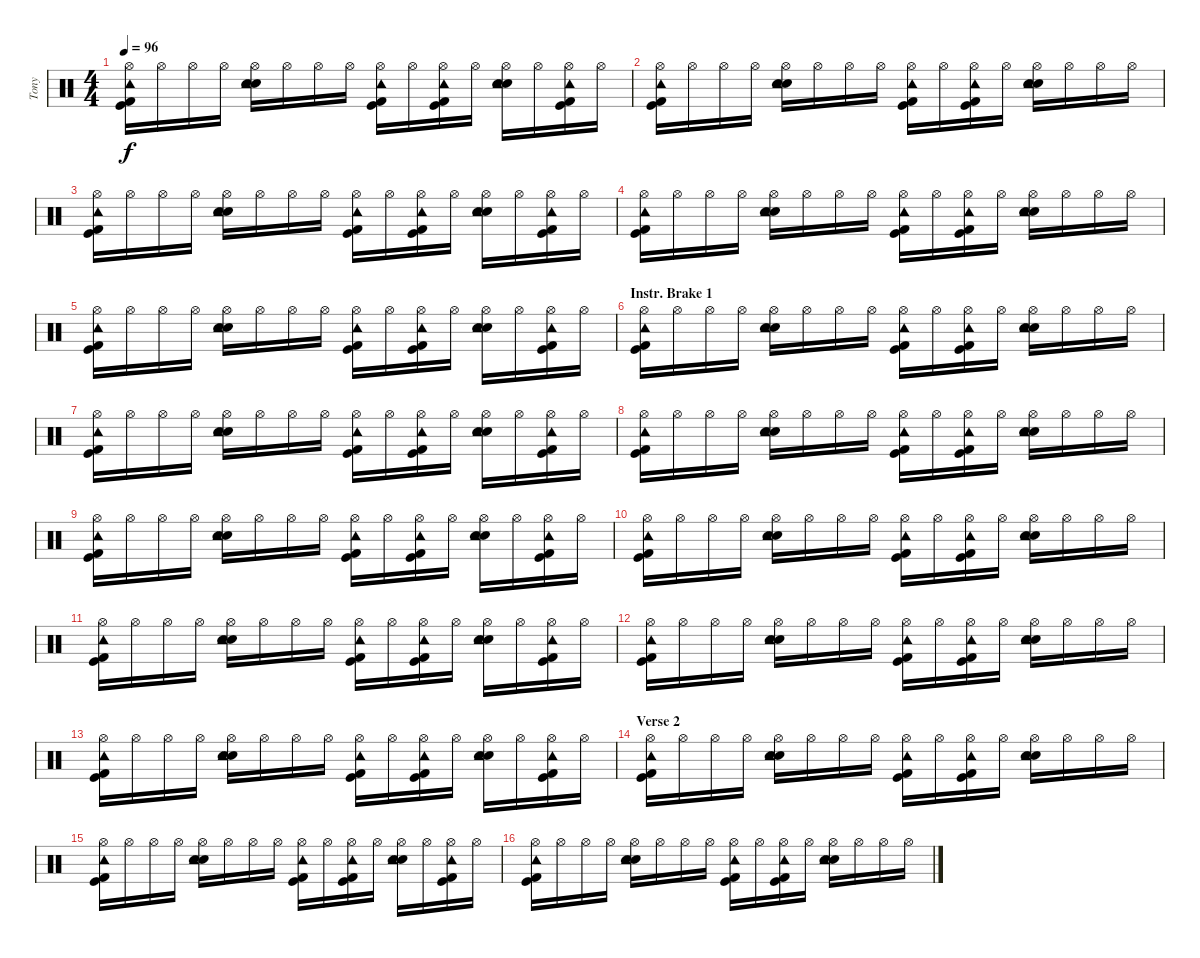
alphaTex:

\track ("Tony" "Tony") {instrument percussion}
\staff {score}
\articulation defaults
\ts (4 4)
\tempo 96
\clef neutral
\ks c
("Kick (hit)" "Kick (hit) 2" "Tambourine (hit)" "Hi-Hat (open)").16{dy f} "Hi-Hat (open)".16 "Hi-Hat (open)".16 "Hi-Hat (open)".16 ("Electric Snare (hit)" "Snare (hit) 2" "Tambourine (hit)" "Hi-Hat (open)").16 "Hi-Hat (open)".16 "Hi-Hat (open)".16 "Hi-Hat (open)".16 ("Kick (hit)" "Kick (hit) 2" "Tambourine (hit)" "Hi-Hat (open)").16 "Hi-Hat (open)".16 ("Kick (hit)" "Kick (hit) 2" "Tambourine (hit)" "Hi-Hat (open)").16 "Hi-Hat (open)".16 ("Electric Snare (hit)" "Snare (hit) 2" "Tambourine (hit)" "Hi-Hat (open)").16 "Hi-Hat (open)".16 ("Kick (hit)" "Kick (hit) 2" "Tambourine (hit)" "Hi-Hat (open)").16 "Hi-Hat (open)".16 |
("Kick (hit)" "Kick (hit) 2" "Tambourine (hit)" "Hi-Hat (open)").16 "Hi-Hat (open)".16 "Hi-Hat (open)".16 "Hi-Hat (open)".16 ("Electric Snare (hit)" "Snare (hit) 2" "Tambourine (hit)" "Hi-Hat (open)").16 "Hi-Hat (open)".16 "Hi-Hat (open)".16 "Hi-Hat (open)".16 ("Kick (hit)" "Kick (hit) 2" "Tambourine (hit)" "Hi-Hat (open)").16 "Hi-Hat (open)".16 ("Kick (hit)" "Kick (hit) 2" "Tambourine (hit)" "Hi-Hat (open)").16 "Hi-Hat (open)".16 ("Electric Snare (hit)" "Snare (hit) 2" "Tambourine (hit)" "Hi-Hat (open)").16 "Hi-Hat (open)".16 "Hi-Hat (open)".16 "Hi-Hat (open)".16 |
("Kick (hit)" "Kick (hit) 2" "Tambourine (hit)" "Hi-Hat (open)").16 "Hi-Hat (open)".16 "Hi-Hat (open)".16 "Hi-Hat (open)".16 ("Electric Snare (hit)" "Snare (hit) 2" "Tambourine (hit)" "Hi-Hat (open)").16 "Hi-Hat (open)".16 "Hi-Hat (open)".16 "Hi-Hat (open)".16 ("Kick (hit)" "Kick (hit) 2" "Tambourine (hit)" "Hi-Hat (open)").16 "Hi-Hat (open)".16 ("Kick (hit)" "Kick (hit) 2" "Tambourine (hit)" "Hi-Hat (open)").16 "Hi-Hat (open)".16 ("Electric Snare (hit)" "Snare (hit) 2" "Tambourine (hit)" "Hi-Hat (open)").16 "Hi-Hat (open)".16 ("Kick (hit)" "Kick (hit) 2" "Tambourine (hit)" "Hi-Hat (open)").16 "Hi-Hat (open)".16 |
("Kick (hit)" "Kick (hit) 2" "Tambourine (hit)" "Hi-Hat (open)").16 "Hi-Hat (open)".16 "Hi-Hat (open)".16 "Hi-Hat (open)".16 ("Electric Snare (hit)" "Snare (hit) 2" "Tambourine (hit)" "Hi-Hat (open)").16 "Hi-Hat (open)".16 "Hi-Hat (open)".16 "Hi-Hat (open)".16 ("Kick (hit)" "Kick (hit) 2" "Tambourine (hit)" "Hi-Hat (open)").16 "Hi-Hat (open)".16 ("Kick (hit)" "Kick (hit) 2" "Tambourine (hit)" "Hi-Hat (open)").16 "Hi-Hat (open)".16 ("Electric Snare (hit)" "Snare (hit) 2" "Tambourine (hit)" "Hi-Hat (open)").16 "Hi-Hat (open)".16 "Hi-Hat (open)".16 "Hi-Hat (open)".16 |
("Kick (hit)" "Kick (hit) 2" "Tambourine (hit)" "Hi-Hat (open)").16 "Hi-Hat (open)".16 "Hi-Hat (open)".16 "Hi-Hat (open)".16 ("Electric Snare (hit)" "Snare (hit) 2" "Tambourine (hit)" "Hi-Hat (open)").16 "Hi-Hat (open)".16 "Hi-Hat (open)".16 "Hi-Hat (open)".16 ("Kick (hit)" "Kick (hit) 2" "Tambourine (hit)" "Hi-Hat (open)").16 "Hi-Hat (open)".16 ("Kick (hit)" "Kick (hit) 2" "Tambourine (hit)" "Hi-Hat (open)").16 "Hi-Hat (open)".16 ("Electric Snare (hit)" "Snare (hit) 2" "Tambourine (hit)" "Hi-Hat (open)").16 "Hi-Hat (open)".16 ("Kick (hit)" "Kick (hit) 2" "Tambourine (hit)" "Hi-Hat (open)").16 "Hi-Hat (open)".16 |
\section ("" "Instr. Brake 1")
("Kick (hit)" "Kick (hit) 2" "Tambourine (hit)" "Hi-Hat (open)").16 "Hi-Hat (open)".16 "Hi-Hat (open)".16 "Hi-Hat (open)".16 ("Electric Snare (hit)" "Snare (hit) 2" "Tambourine (hit)" "Hi-Hat (open)").16 "Hi-Hat (open)".16 "Hi-Hat (open)".16 "Hi-Hat (open)".16 ("Kick (hit)" "Kick (hit) 2" "Tambourine (hit)" "Hi-Hat (open)").16 "Hi-Hat (open)".16 ("Kick (hit)" "Kick (hit) 2" "Tambourine (hit)" "Hi-Hat (open)").16 "Hi-Hat (open)".16 ("Electric Snare (hit)" "Snare (hit) 2" "Tambourine (hit)" "Hi-Hat (open)").16 "Hi-Hat (open)".16 "Hi-Hat (open)".16 "Hi-Hat (open)".16 |
("Kick (hit)" "Kick (hit) 2" "Tambourine (hit)" "Hi-Hat (open)").16 "Hi-Hat (open)".16 "Hi-Hat (open)".16 "Hi-Hat (open)".16 ("Electric Snare (hit)" "Snare (hit) 2" "Tambourine (hit)" "Hi-Hat (open)").16 "Hi-Hat (open)".16 "Hi-Hat (open)".16 "Hi-Hat (open)".16 ("Kick (hit)" "Kick (hit) 2" "Tambourine (hit)" "Hi-Hat (open)").16 "Hi-Hat (open)".16 ("Kick (hit)" "Kick (hit) 2" "Tambourine (hit)" "Hi-Hat (open)").16 "Hi-Hat (open)".16 ("Electric Snare (hit)" "Snare (hit) 2" "Tambourine (hit)" "Hi-Hat (open)").16 "Hi-Hat (open)".16 ("Kick (hit)" "Kick (hit) 2" "Tambourine (hit)" "Hi-Hat (open)").16 "Hi-Hat (open)".16 |
("Kick (hit)" "Kick (hit) 2" "Tambourine (hit)" "Hi-Hat (open)").16 "Hi-Hat (open)".16 "Hi-Hat (open)".16 "Hi-Hat (open)".16 ("Electric Snare (hit)" "Snare (hit) 2" "Tambourine (hit)" "Hi-Hat (open)").16 "Hi-Hat (open)".16 "Hi-Hat (open)".16 "Hi-Hat (open)".16 ("Kick (hit)" "Kick (hit) 2" "Tambourine (hit)" "Hi-Hat (open)").16 "Hi-Hat (open)".16 ("Kick (hit)" "Kick (hit) 2" "Tambourine (hit)" "Hi-Hat (open)").16 "Hi-Hat (open)".16 ("Electric Snare (hit)" "Snare (hit) 2" "Tambourine (hit)" "Hi-Hat (open)").16 "Hi-Hat (open)".16 "Hi-Hat (open)".16 "Hi-Hat (open)".16 |
("Kick (hit)" "Kick (hit) 2" "Tambourine (hit)" "Hi-Hat (open)").16 "Hi-Hat (open)".16 "Hi-Hat (open)".16 "Hi-Hat (open)".16 ("Electric Snare (hit)" "Snare (hit) 2" "Tambourine (hit)" "Hi-Hat (open)").16 "Hi-Hat (open)".16 "Hi-Hat (open)".16 "Hi-Hat (open)".16 ("Kick (hit)" "Kick (hit) 2" "Tambourine (hit)" "Hi-Hat (open)").16 "Hi-Hat (open)".16 ("Kick (hit)" "Kick (hit) 2" "Tambourine (hit)" "Hi-Hat (open)").16 "Hi-Hat (open)".16 ("Electric Snare (hit)" "Snare (hit) 2" "Tambourine (hit)" "Hi-Hat (open)").16 "Hi-Hat (open)".16 ("Kick (hit)" "Kick (hit) 2" "Tambourine (hit)" "Hi-Hat (open)").16 "Hi-Hat (open)".16 |
("Kick (hit)" "Kick (hit) 2" "Tambourine (hit)" "Hi-Hat (open)").16 "Hi-Hat (open)".16 "Hi-Hat (open)".16 "Hi-Hat (open)".16 ("Electric Snare (hit)" "Snare (hit) 2" "Tambourine (hit)" "Hi-Hat (open)").16 "Hi-Hat (open)".16 "Hi-Hat (open)".16 "Hi-Hat (open)".16 ("Kick (hit)" "Kick (hit) 2" "Tambourine (hit)" "Hi-Hat (open)").16 "Hi-Hat (open)".16 ("Kick (hit)" "Kick (hit) 2" "Tambourine (hit)" "Hi-Hat (open)").16 "Hi-Hat (open)".16 ("Electric Snare (hit)" "Snare (hit) 2" "Tambourine (hit)" "Hi-Hat (open)").16 "Hi-Hat (open)".16 "Hi-Hat (open)".16 "Hi-Hat (open)".16 |
("Kick (hit)" "Kick (hit) 2" "Tambourine (hit)" "Hi-Hat (open)").16 "Hi-Hat (open)".16 "Hi-Hat (open)".16 "Hi-Hat (open)".16 ("Electric Snare (hit)" "Snare (hit) 2" "Tambourine (hit)" "Hi-Hat (open)").16 "Hi-Hat (open)".16 "Hi-Hat (open)".16 "Hi-Hat (open)".16 ("Kick (hit)" "Kick (hit) 2" "Tambourine (hit)" "Hi-Hat (open)").16 "Hi-Hat (open)".16 ("Kick (hit)" "Kick (hit) 2" "Tambourine (hit)" "Hi-Hat (open)").16 "Hi-Hat (open)".16 ("Electric Snare (hit)" "Snare (hit) 2" "Tambourine (hit)" "Hi-Hat (open)").16 "Hi-Hat (open)".16 ("Kick (hit)" "Kick (hit) 2" "Tambourine (hit)" "Hi-Hat (open)").16 "Hi-Hat (open)".16 |
("Kick (hit)" "Kick (hit) 2" "Tambourine (hit)" "Hi-Hat (open)").16 "Hi-Hat (open)".16 "Hi-Hat (open)".16 "Hi-Hat (open)".16 ("Electric Snare (hit)" "Snare (hit) 2" "Tambourine (hit)" "Hi-Hat (open)").16 "Hi-Hat (open)".16 "Hi-Hat (open)".16 "Hi-Hat (open)".16 ("Kick (hit)" "Kick (hit) 2" "Tambourine (hit)" "Hi-Hat (open)").16 "Hi-Hat (open)".16 ("Kick (hit)" "Kick (hit) 2" "Tambourine (hit)" "Hi-Hat (open)").16 "Hi-Hat (open)".16 ("Electric Snare (hit)" "Snare (hit) 2" "Tambourine (hit)" "Hi-Hat (open)").16 "Hi-Hat (open)".16 "Hi-Hat (open)".16 "Hi-Hat (open)".16 |
("Kick (hit)" "Kick (hit) 2" "Tambourine (hit)" "Hi-Hat (open)").16 "Hi-Hat (open)".16 "Hi-Hat (open)".16 "Hi-Hat (open)".16 ("Electric Snare (hit)" "Snare (hit) 2" "Tambourine (hit)" "Hi-Hat (open)").16 "Hi-Hat (open)".16 "Hi-Hat (open)".16 "Hi-Hat (open)".16 ("Kick (hit)" "Kick (hit) 2" "Tambourine (hit)" "Hi-Hat (open)").16 "Hi-Hat (open)".16 ("Kick (hit)" "Kick (hit) 2" "Tambourine (hit)" "Hi-Hat (open)").16 "Hi-Hat (open)".16 ("Electric Snare (hit)" "Snare (hit) 2" "Tambourine (hit)" "Hi-Hat (open)").16 "Hi-Hat (open)".16 ("Kick (hit)" "Kick (hit) 2" "Tambourine (hit)" "Hi-Hat (open)").16 "Hi-Hat (open)".16 |
\section ("" "Verse 2")
("Kick (hit)" "Kick (hit) 2" "Tambourine (hit)" "Hi-Hat (open)").16 "Hi-Hat (open)".16 "Hi-Hat (open)".16 "Hi-Hat (open)".16 ("Electric Snare (hit)" "Snare (hit) 2" "Tambourine (hit)" "Hi-Hat (open)").16 "Hi-Hat (open)".16 "Hi-Hat (open)".16 "Hi-Hat (open)".16 ("Kick (hit)" "Kick (hit) 2" "Tambourine (hit)" "Hi-Hat (open)").16 "Hi-Hat (open)".16 ("Kick (hit)" "Kick (hit) 2" "Tambourine (hit)" "Hi-Hat (open)").16 "Hi-Hat (open)".16 ("Electric Snare (hit)" "Snare (hit) 2" "Tambourine (hit)" "Hi-Hat (open)").16 "Hi-Hat (open)".16 "Hi-Hat (open)".16 "Hi-Hat (open)".16 |
("Kick (hit)" "Kick (hit) 2" "Tambourine (hit)" "Hi-Hat (open)").16 "Hi-Hat (open)".16 "Hi-Hat (open)".16 "Hi-Hat (open)".16 ("Electric Snare (hit)" "Snare (hit) 2" "Tambourine (hit)" "Hi-Hat (open)").16 "Hi-Hat (open)".16 "Hi-Hat (open)".16 "Hi-Hat (open)".16 ("Kick (hit)" "Kick (hit) 2" "Tambourine (hit)" "Hi-Hat (open)").16 "Hi-Hat (open)".16 ("Kick (hit)" "Kick (hit) 2" "Tambourine (hit)" "Hi-Hat (open)").16 "Hi-Hat (open)".16 ("Electric Snare (hit)" "Snare (hit) 2" "Tambourine (hit)" "Hi-Hat (open)").16 "Hi-Hat (open)".16 ("Kick (hit)" "Kick (hit) 2" "Tambourine (hit)" "Hi-Hat (open)").16 "Hi-Hat (open)".16 |
("Kick (hit)" "Kick (hit) 2" "Tambourine (hit)" "Hi-Hat (open)").16 "Hi-Hat (open)".16 "Hi-Hat (open)".16 "Hi-Hat (open)".16 ("Electric Snare (hit)" "Snare (hit) 2" "Tambourine (hit)" "Hi-Hat (open)").16 "Hi-Hat (open)".16 "Hi-Hat (open)".16 "Hi-Hat (open)".16 ("Kick (hit)" "Kick (hit) 2" "Tambourine (hit)" "Hi-Hat (open)").16 "Hi-Hat (open)".16 ("Kick (hit)" "Kick (hit) 2" "Tambourine (hit)" "Hi-Hat (open)").16 "Hi-Hat (open)".16 ("Electric Snare (hit)" "Snare (hit) 2" "Tambourine (hit)" "Hi-Hat (open)").16 "Hi-Hat (open)".16 "Hi-Hat (open)".16 "Hi-Hat (open)".16
